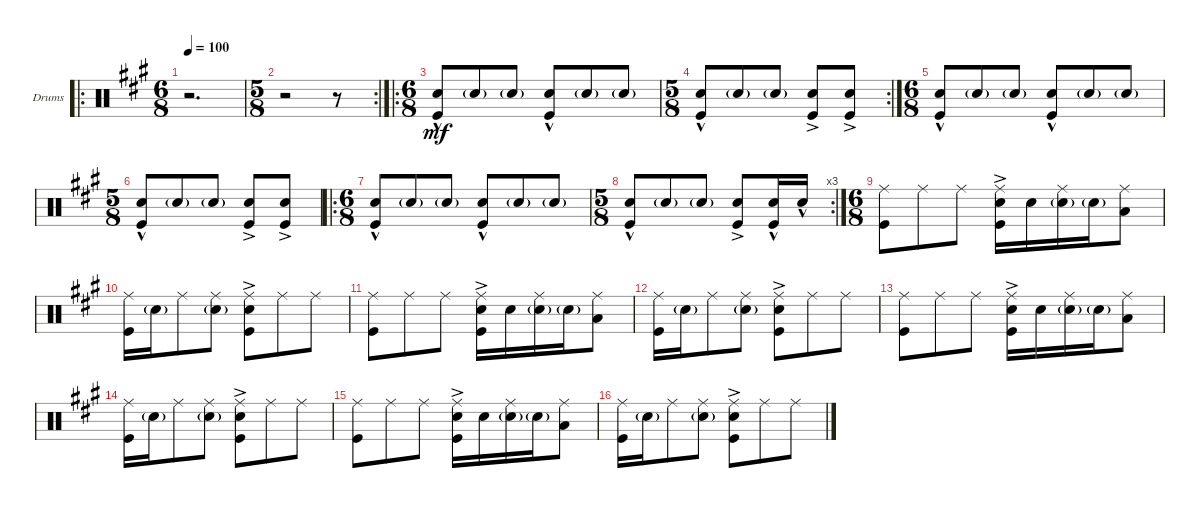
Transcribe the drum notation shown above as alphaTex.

\bracketExtendMode groupsimilarinstruments
\firstSystemTrackNameOrientation horizontal
\otherSystemsTrackNameOrientation horizontal
\track ("Drumkit" "Drums") {instrument percussion}
\staff {score}
\articulation defaults
\ro
\ts (6 8)
\beaming (8 2 2 2 2)
\tempo 100
\clef neutral
\scale
0.320755
\ks a
r.2{d dy mf} |
\rc 2
\ts (5 8)
\beaming (8 2 2 2 2)
\scale
0.320755 r.2 r.8 |
\ro
\ts (6 8)
\beaming (8 3 3)
\scale
0.358491 ("Snare (hit) 2"{hac} "Kick (hit)").8 "Snare (hit) 2"{g}.8 "Snare (hit) 2"{g}.8 ("Snare (hit) 2"{hac} "Kick (hit)").8 "Snare (hit) 2"{g}.8 "Snare (hit) 2"{g}.8 |
\rc 2
\ts (5 8)
\beaming (8 3 2)
\scale
0.346154 ("Snare (hit) 2"{hac} "Kick (hit)").8 "Snare (hit) 2"{g}.8 "Snare (hit) 2"{g}.8 ("Snare (hit) 2"{ac} "Kick (hit)").8 ("Snare (hit) 2"{ac} "Kick (hit)").8 |
\ts (6 8)
\beaming (8 3 3)
\scale
0.326923 ("Snare (hit) 2"{hac} "Kick (hit)").8 "Snare (hit) 2"{g}.8 "Snare (hit) 2"{g}.8 ("Snare (hit) 2"{hac} "Kick (hit)").8 "Snare (hit) 2"{g}.8 "Snare (hit) 2"{g}.8 |
\ts (5 8)
\beaming (8 3 2)
\scale
0.326923 ("Snare (hit) 2"{hac} "Kick (hit)").8 "Snare (hit) 2"{g}.8 "Snare (hit) 2"{g}.8 ("Snare (hit) 2"{ac} "Kick (hit)").8 ("Snare (hit) 2"{ac} "Kick (hit)").8 |
\ro
\ts (6 8)
\beaming (8 3 3)
\scale
0.351852 ("Snare (hit) 2"{hac} "Kick (hit)").8 "Snare (hit) 2"{g}.8 "Snare (hit) 2"{g}.8 ("Snare (hit) 2"{hac} "Kick (hit)").8 "Snare (hit) 2"{g}.8 "Snare (hit) 2"{g}.8 |
\rc 3
\ts (5 8)
\beaming (8 3 2)
\scale
0.333333 ("Snare (hit) 2"{hac} "Kick (hit)").8 "Snare (hit) 2"{g}.8 "Snare (hit) 2"{g}.8 ("Snare (hit) 2"{ac} "Kick (hit)").8 ("Snare (hit) 2"{hac} "Kick (hit)").16 "Snare (hit) 2"{hac}.16 |
\ts (6 8)
\beaming (8 3 3)
\scale
0.314815 ("Ride (middle)" "Kick (hit)").8 "Ride (middle)".8 "Ride (middle)".8 ("Snare (hit) 2"{ac} "Ride (middle)" "Kick (hit)").16 "Snare (hit) 2".16 ("Snare (hit) 2"{g} "Ride (middle)").16 "Snare (hit) 2"{g}.16 ("Ride (middle)" "Low Tom (hit)").8 |
\scale
0.333333 ("Ride (middle)" "Kick (hit)").16 "Snare (hit) 2"{g}.16 "Ride (middle)".8 ("Snare (hit) 2"{g} "Ride (middle)").8 ("Snare (hit) 2"{ac} "Ride (middle)" "Kick (hit)").8 "Ride (middle)".8 "Ride (middle)".8 |
\scale
0.333333 ("Ride (middle)" "Kick (hit)").8 "Ride (middle)".8 "Ride (middle)".8 ("Snare (hit) 2"{ac} "Ride (middle)" "Kick (hit)").16 "Snare (hit) 2".16 ("Snare (hit) 2"{g} "Ride (middle)").16 "Snare (hit) 2"{g}.16 ("Ride (middle)" "Low Tom (hit)").8 |
\scale
0.333333 ("Ride (middle)" "Kick (hit)").16 "Snare (hit) 2"{g}.16 "Ride (middle)".8 ("Snare (hit) 2"{g} "Ride (middle)").8 ("Snare (hit) 2"{ac} "Ride (middle)" "Kick (hit)").8 "Ride (middle)".8 "Ride (middle)".8 |
\scale
0.333333 ("Ride (middle)" "Kick (hit)").8 "Ride (middle)".8 "Ride (middle)".8 ("Snare (hit) 2"{ac} "Ride (middle)" "Kick (hit)").16 "Snare (hit) 2".16 ("Snare (hit) 2"{g} "Ride (middle)").16 "Snare (hit) 2"{g}.16 ("Ride (middle)" "Low Tom (hit)").8 |
\scale
0.333333 ("Ride (middle)" "Kick (hit)").16 "Snare (hit) 2"{g}.16 "Ride (middle)".8 ("Snare (hit) 2"{g} "Ride (middle)").8 ("Snare (hit) 2"{ac} "Ride (middle)" "Kick (hit)").8 "Ride (middle)".8 "Ride (middle)".8 |
\scale
0.333333 ("Ride (middle)" "Kick (hit)").8 "Ride (middle)".8 "Ride (middle)".8 ("Snare (hit) 2"{ac} "Ride (middle)" "Kick (hit)").16 "Snare (hit) 2".16 ("Snare (hit) 2"{g} "Ride (middle)").16 "Snare (hit) 2"{g}.16 ("Ride (middle)" "Low Tom (hit)").8 |
\scale
0.333333 ("Ride (middle)" "Kick (hit)").16 "Snare (hit) 2"{g}.16 "Ride (middle)".8 ("Snare (hit) 2"{g} "Ride (middle)").8 ("Snare (hit) 2"{ac} "Ride (middle)" "Kick (hit)").8 "Ride (middle)".8 "Ride (middle)".8
